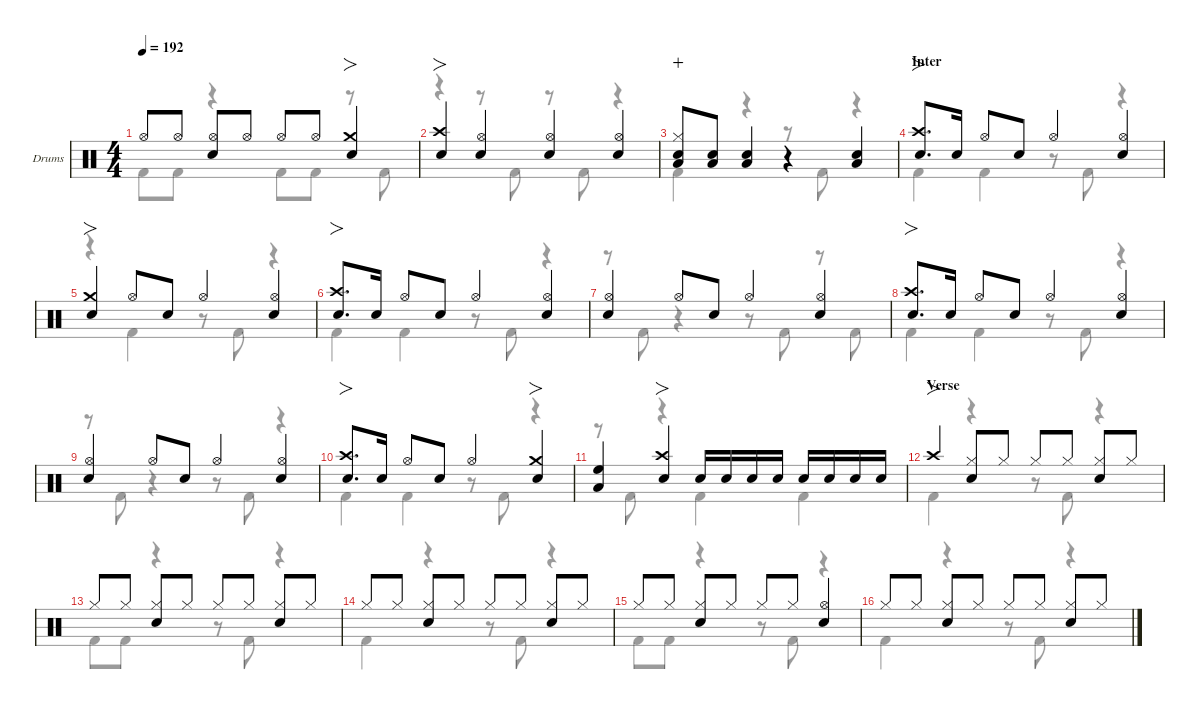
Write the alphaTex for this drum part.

\defaultSystemsLayout 4
\hideDynamics
\bracketExtendMode nobrackets
\firstSystemTrackNameOrientation horizontal
\track ("Drums" "Drums") {defaultSystemsLayout 4 instrument percussion}
\staff {score}
\articulation defaults
\voice
\ts (4 4)
\tempo 192
\clef neutral
\scale
0.244461
\ks c "Hi-Hat (open)".8{dy f beam Up} "Hi-Hat (open)".8{dy mf beam Up}
("Hi-Hat (open)" "Snare (hit) 2").8{dy f beam Up} "Hi-Hat (open)".8{dy mf beam Up} "Hi-Hat (open)".8{dy f beam Up} "Hi-Hat (open)".8{dy mf beam Up} ("Snare (hit) 2" "Crash medium (hit)").4{fo dy f beam Up} |
\scale
0.511079 ("Snare (hit) 2" "Crash high (hit)").4{fo beam Up} ("Snare (hit) 2" "Hi-Hat (open)").4{beam Up} ("Snare (hit) 2" "Hi-Hat (open)").4{beam Up} ("Snare (hit) 2" "Hi-Hat (open)").4{beam Up} |
\scale
0.488921 ("Hi-Hat (closed)" "Snare (hit) 2" "Low Tom (hit)").8{wahc beam Up} ("Snare (hit) 2" "Low Tom (hit)").8{beam Up} ("Snare (hit) 2" "Low Tom (hit)").4{beam Up} r.4{beam Up} ("Snare (hit) 2" "Low Tom (hit)").4{beam Up} |
\section ("" "Inter")
\scale
0.266618 ("Crash high (hit)" "Snare (hit) 2").8{fo d beam Up} "Snare (hit) 2".16{beam Up beam split} "Hi-Hat (open)".8{beam Up beam merge} "Snare (hit) 2".8{beam Up} "Hi-Hat (open)".4{beam Up} ("Hi-Hat (open)" "Snare (hit) 2").4{beam Up} |
\scale
0.244461 ("Snare (hit) 2" "Crash medium (hit)").4{fo beam Up} "Hi-Hat (open)".8{beam Up} "Snare (hit) 2".8{beam Up} "Hi-Hat (open)".4{beam Up} ("Hi-Hat (open)" "Snare (hit) 2").4{beam Up} |
\scale
0.244461 ("Crash high (hit)" "Snare (hit) 2").8{fo d beam Up} "Snare (hit) 2".16{beam Up beam split} "Hi-Hat (open)".8{beam Up beam merge} "Snare (hit) 2".8{beam Up} "Hi-Hat (open)".4{beam Up} ("Hi-Hat (open)" "Snare (hit) 2").4{beam Up} |
\scale
0.244461 ("Snare (hit) 2" "Hi-Hat (open)").4{beam Up} "Hi-Hat (open)".8{beam Up} "Snare (hit) 2".8{beam Up} "Hi-Hat (open)".4{beam Up} ("Snare (hit) 2" "Hi-Hat (open)").4{beam Up} |
\scale
0.266618 ("Crash high (hit)" "Snare (hit) 2").8{fo d beam Up} "Snare (hit) 2".16{beam Up beam split} "Hi-Hat (open)".8{beam Up beam merge} "Snare (hit) 2".8{beam Up} "Hi-Hat (open)".4{beam Up} ("Hi-Hat (open)" "Snare (hit) 2").4{beam Up} |
\scale
0.24446 ("Hi-Hat (open)" "Snare (hit) 2").4{beam Up} "Hi-Hat (open)".8{beam Up} "Snare (hit) 2".8{beam Up} "Hi-Hat (open)".4{beam Up} ("Hi-Hat (open)" "Snare (hit) 2").4{beam Up} |
\scale
0.24446 ("Crash high (hit)" "Snare (hit) 2").8{fo d beam Up} "Snare (hit) 2".16{beam Up beam split} "Hi-Hat (open)".8{beam Up} "Snare (hit) 2".8{beam Up} "Hi-Hat (open)".4{beam Up} ("Snare (hit) 2" "Crash medium (hit)").4{fo beam Up} |
\scale
0.244461 ("Low Tom (hit)" "High Floor Tom (hit)").4{beam Up} ("Snare (hit) 2" "Crash high (hit)").4{fo beam Up} "Snare (hit) 2".16{beam Up} "Snare (hit) 2".16{dy mf beam Up} "Snare (hit) 2".16{dy f beam Up} "Snare (hit) 2".16{dy mf beam Up beam split} "Snare (hit) 2".16{dy f beam Up} "Snare (hit) 2".16{dy mf beam Up} "Snare (hit) 2".16{dy f beam Up} "Snare (hit) 2".16{dy mf beam Up} |
\section ("" "Verse")
\scale
0.266618 "Crash high (hit)".4{fo dy f beam Up} ("Hi-Hat (closed)" "Snare (hit) 2").8{beam Up} "Hi-Hat (closed)".8{dy mf beam Up} "Hi-Hat (closed)".8{dy f beam Up} "Hi-Hat (closed)".8{dy mf beam Up} ("Hi-Hat (closed)" "Snare (hit) 2").8{dy f beam Up} "Hi-Hat (closed)".8{dy mf beam Up} |
\scale
0.244461 "Hi-Hat (closed)".8{dy f beam Up} "Hi-Hat (closed)".8{dy mf beam Up} ("Hi-Hat (closed)" "Snare (hit) 2").8{dy f beam Up} "Hi-Hat (closed)".8{dy mf beam Up} "Hi-Hat (closed)".8{dy f beam Up} "Hi-Hat (closed)".8{dy mf beam Up} ("Hi-Hat (closed)" "Snare (hit) 2").8{dy f beam Up} "Hi-Hat (closed)".8{dy mf beam Up} |
\scale
0.244461 "Hi-Hat (closed)".8{dy f beam Up} "Hi-Hat (closed)".8{dy mf beam Up} ("Hi-Hat (closed)" "Snare (hit) 2").8{dy f beam Up} "Hi-Hat (closed)".8{dy mf beam Up} "Hi-Hat (closed)".8{dy f beam Up} "Hi-Hat (closed)".8{dy mf beam Up} ("Hi-Hat (closed)" "Snare (hit) 2").8{dy f beam Up} "Hi-Hat (closed)".8{dy mf beam Up} |
\scale
0.244461 "Hi-Hat (closed)".8{dy f beam Up} "Hi-Hat (closed)".8{dy mf beam Up} ("Hi-Hat (closed)" "Snare (hit) 2").8{dy f beam Up} "Hi-Hat (closed)".8{dy mf beam Up} "Hi-Hat (closed)".8{dy f beam Up} "Hi-Hat (closed)".8{dy mf beam Up} ("Hi-Hat (open)" "Snare (hit) 2").4{dy f beam Up} |
\scale
0.266618 "Hi-Hat (closed)".8{beam Up} "Hi-Hat (closed)".8{dy mf beam Up} ("Hi-Hat (closed)" "Snare (hit) 2").8{dy f beam Up} "Hi-Hat (closed)".8{dy mf beam Up} "Hi-Hat (closed)".8{dy f beam Up} "Hi-Hat (closed)".8{dy mf beam Up} ("Hi-Hat (closed)" "Snare (hit) 2").8{dy f beam Up} "Hi-Hat (closed)".8{dy mf beam Up}
\voice
\clef neutral
\ottava regular
\simile none
\scale
0.244461
\ks c "Kick (hit) 2".8{dy f beam Down} "Kick (hit) 2".8{beam Down}
r.4{beam Down} "Kick (hit) 2".8{beam Down} "Kick (hit) 2".8{beam Down} r.8{beam Down} "Kick (hit) 2".8{beam Down} |
\scale
0.511079 r.4{beam Down} r.8{beam Down} "Kick (hit) 2".8{beam Down} r.8{beam Down} "Kick (hit) 2".8{beam Down} r.4{beam Down} |
\scale
0.488921 "Kick (hit) 2".4{beam Down} r.4{beam Down} r.8{beam Down} "Kick (hit) 2".8{beam Down} r.4{beam Down} |
\scale
0.266618 "Kick (hit) 2".4{beam Down} "Kick (hit) 2".4{beam Down} r.8{beam Down} "Kick (hit) 2".8{beam Down} r.4{beam Down} |
\scale
0.244461 r.4{beam Down} "Kick (hit) 2".4{beam Down} r.8{beam Down} "Kick (hit) 2".8{beam Down} r.4{beam Down} |
\scale
0.244461 "Kick (hit) 2".4{beam Down} "Kick (hit) 2".4{beam Down} r.8{beam Down} "Kick (hit) 2".8{beam Down} r.4{beam Down} |
\scale
0.244461 r.8{beam Down} "Kick (hit) 2".8{beam Down} r.4{beam Down} r.8{beam Down} "Kick (hit) 2".8{beam Down} r.8{beam Down} "Kick (hit) 2".8{beam Down} |
\scale
0.266618 "Kick (hit) 2".4{beam Down} "Kick (hit) 2".4{beam Down} r.8{beam Down} "Kick (hit) 2".8{beam Down} r.4{beam Down} |
\scale
0.24446 r.8{beam Down} "Kick (hit) 2".8{beam Down} r.4{beam Down} r.8{beam Down} "Kick (hit) 2".8{beam Down} r.4{beam Down} |
\scale
0.24446 "Kick (hit) 2".4{beam Down} "Kick (hit) 2".4{beam Down} r.8{beam Down} "Kick (hit) 2".8{beam Down} r.4{beam Down} |
\scale
0.244461 r.8{beam Down} "Kick (hit) 2".8{beam Down} r.4{beam Down} "Kick (hit) 2".4{beam Down} "Kick (hit) 2".4{beam Down} |
\scale
0.266618 "Kick (hit) 2".4{beam Down} r.4{beam Down} r.8{beam Down} "Kick (hit) 2".8{beam Down} r.4{beam Down} |
\scale
0.244461 "Kick (hit) 2".8{beam Down} "Kick (hit) 2".8{beam Down} r.4{beam Down} r.8{beam Down} "Kick (hit) 2".8{beam Down} r.4{beam Down} |
\scale
0.244461 "Kick (hit) 2".4{beam Down} r.4{beam Down} r.8{beam Down} "Kick (hit) 2".8{beam Down} r.4{beam Down} |
\scale
0.244461 "Kick (hit) 2".8{beam Down} "Kick (hit) 2".8{beam Down} r.4{beam Down} r.8{beam Down} "Kick (hit) 2".8{beam Down} r.4{beam Down} |
\scale
0.266618 "Kick (hit) 2".4{beam Down} r.4{beam Down} r.8{beam Down} "Kick (hit) 2".8{beam Down} r.4{beam Down}
